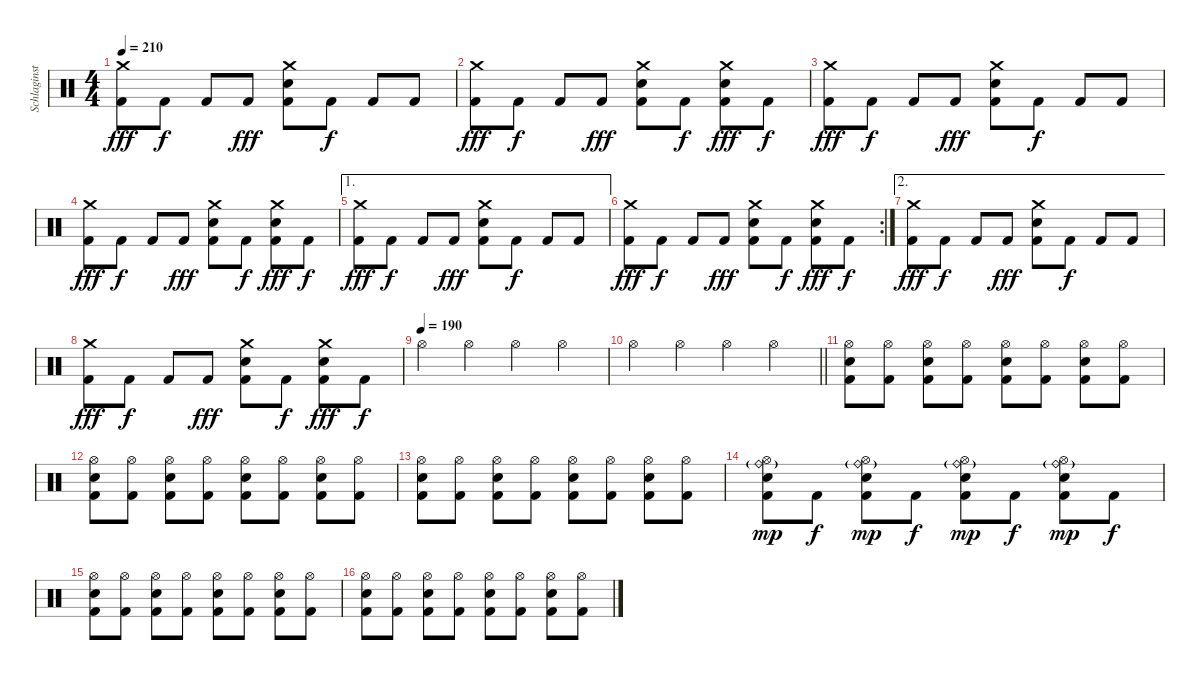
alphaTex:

\track ("Schlaginstrumente - Auswahl" "Schlaginst") {instrument percussion}
\staff {score}
\articulation defaults
\ts (4 4)
\tempo 210
\clef neutral
\ks c
("Crash medium (hit)" "Kick (hit) 2").8{dy fff} "Kick (hit) 2".8{dy f} "Kick (hit) 2".8 "Kick (hit) 2".8{dy fff} ("Crash medium (hit)" "Snare (hit) 2" "Kick (hit) 2").8 "Kick (hit) 2".8{dy f} "Kick (hit) 2".8 "Kick (hit) 2".8 |
("Crash medium (hit)" "Kick (hit) 2").8{dy fff} "Kick (hit) 2".8{dy f} "Kick (hit) 2".8 "Kick (hit) 2".8{dy fff} ("Crash medium (hit)" "Snare (hit) 2" "Kick (hit) 2").8 "Kick (hit) 2".8{dy f} ("Crash medium (hit)" "Snare (hit) 2" "Kick (hit) 2").8{dy fff} "Kick (hit) 2".8{dy f} |
("Crash medium (hit)" "Kick (hit) 2").8{dy fff} "Kick (hit) 2".8{dy f} "Kick (hit) 2".8 "Kick (hit) 2".8{dy fff} ("Crash medium (hit)" "Snare (hit) 2" "Kick (hit) 2").8 "Kick (hit) 2".8{dy f} "Kick (hit) 2".8 "Kick (hit) 2".8 |
("Crash medium (hit)" "Kick (hit) 2").8{dy fff} "Kick (hit) 2".8{dy f} "Kick (hit) 2".8 "Kick (hit) 2".8{dy fff} ("Crash medium (hit)" "Snare (hit) 2" "Kick (hit) 2").8 "Kick (hit) 2".8{dy f} ("Crash medium (hit)" "Snare (hit) 2" "Kick (hit) 2").8{dy fff} "Kick (hit) 2".8{dy f} |
\ae 1
("Crash medium (hit)" "Kick (hit) 2").8{dy fff} "Kick (hit) 2".8{dy f} "Kick (hit) 2".8 "Kick (hit) 2".8{dy fff} ("Crash medium (hit)" "Snare (hit) 2" "Kick (hit) 2").8 "Kick (hit) 2".8{dy f} "Kick (hit) 2".8 "Kick (hit) 2".8 |
\rc 2
("Crash medium (hit)" "Kick (hit) 2").8{dy fff} "Kick (hit) 2".8{dy f} "Kick (hit) 2".8 "Kick (hit) 2".8{dy fff} ("Crash medium (hit)" "Snare (hit) 2" "Kick (hit) 2").8 "Kick (hit) 2".8{dy f} ("Crash medium (hit)" "Snare (hit) 2" "Kick (hit) 2").8{dy fff} "Kick (hit) 2".8{dy f} |
\ae 2
("Crash medium (hit)" "Kick (hit) 2").8{dy fff} "Kick (hit) 2".8{dy f} "Kick (hit) 2".8 "Kick (hit) 2".8{dy fff} ("Crash medium (hit)" "Snare (hit) 2" "Kick (hit) 2").8 "Kick (hit) 2".8{dy f} "Kick (hit) 2".8 "Kick (hit) 2".8 |
("Crash medium (hit)" "Kick (hit) 2").8{dy fff} "Kick (hit) 2".8{dy f} "Kick (hit) 2".8 "Kick (hit) 2".8{dy fff} ("Crash medium (hit)" "Snare (hit) 2" "Kick (hit) 2").8 "Kick (hit) 2".8{dy f} ("Crash medium (hit)" "Snare (hit) 2" "Kick (hit) 2").8{dy fff} "Kick (hit) 2".8{dy f} |
\tempo (190)
"Hi-Hat (open)".4 "Hi-Hat (open)".4 "Hi-Hat (open)".4 "Hi-Hat (open)".4 |
\barLineRight lightlight "Hi-Hat (open)".4 "Hi-Hat (open)".4 "Hi-Hat (open)".4 "Hi-Hat (open)".4
|
("Hi-Hat (open)" "Snare (hit) 2" "Kick (hit) 2").8 ("Hi-Hat (open)" "Kick (hit) 2").8 ("Hi-Hat (open)" "Snare (hit) 2" "Kick (hit) 2").8 ("Hi-Hat (open)" "Kick (hit) 2").8 ("Hi-Hat (open)" "Snare (hit) 2" "Kick (hit) 2").8 ("Hi-Hat (open)" "Kick (hit) 2").8 ("Hi-Hat (open)" "Snare (hit) 2" "Kick (hit) 2").8 ("Hi-Hat (open)" "Kick (hit) 2").8 |
("Hi-Hat (open)" "Snare (hit) 2" "Kick (hit) 2").8 ("Hi-Hat (open)" "Kick (hit) 2").8 ("Hi-Hat (open)" "Snare (hit) 2" "Kick (hit) 2").8 ("Hi-Hat (open)" "Kick (hit) 2").8 ("Hi-Hat (open)" "Snare (hit) 2" "Kick (hit) 2").8 ("Hi-Hat (open)" "Kick (hit) 2").8 ("Hi-Hat (open)" "Snare (hit) 2" "Kick (hit) 2").8 ("Hi-Hat (open)" "Kick (hit) 2").8 |
("Hi-Hat (open)" "Snare (hit) 2" "Kick (hit) 2").8 ("Hi-Hat (open)" "Kick (hit) 2").8 ("Hi-Hat (open)" "Snare (hit) 2" "Kick (hit) 2").8 ("Hi-Hat (open)" "Kick (hit) 2").8 ("Hi-Hat (open)" "Snare (hit) 2" "Kick (hit) 2").8 ("Hi-Hat (open)" "Kick (hit) 2").8 ("Hi-Hat (open)" "Snare (hit) 2" "Kick (hit) 2").8 ("Hi-Hat (open)" "Kick (hit) 2").8 |
("Ride (bell)"{g} "Hi-Hat (open)" "Snare (hit) 2" "Kick (hit) 2").8{dy mp} "Kick (hit) 2".8{dy f} ("Ride (bell)"{g} "Hi-Hat (open)" "Snare (hit) 2" "Kick (hit) 2").8{dy mp} "Kick (hit) 2".8{dy f} ("Ride (bell)"{g} "Hi-Hat (open)" "Snare (hit) 2" "Kick (hit) 2").8{dy mp} "Kick (hit) 2".8{dy f} ("Ride (bell)"{g} "Hi-Hat (open)" "Snare (hit) 2" "Kick (hit) 2").8{dy mp} "Kick (hit) 2".8{dy f} |
("Hi-Hat (open)" "Snare (hit) 2" "Kick (hit) 2").8 ("Hi-Hat (open)" "Kick (hit) 2").8 ("Hi-Hat (open)" "Snare (hit) 2" "Kick (hit) 2").8 ("Hi-Hat (open)" "Kick (hit) 2").8 ("Hi-Hat (open)" "Snare (hit) 2" "Kick (hit) 2").8 ("Hi-Hat (open)" "Kick (hit) 2").8 ("Hi-Hat (open)" "Snare (hit) 2" "Kick (hit) 2").8 ("Hi-Hat (open)" "Kick (hit) 2").8 |
("Hi-Hat (open)" "Snare (hit) 2" "Kick (hit) 2").8 ("Hi-Hat (open)" "Kick (hit) 2").8 ("Hi-Hat (open)" "Snare (hit) 2" "Kick (hit) 2").8 ("Hi-Hat (open)" "Kick (hit) 2").8 ("Hi-Hat (open)" "Snare (hit) 2" "Kick (hit) 2").8 ("Hi-Hat (open)" "Kick (hit) 2").8 ("Hi-Hat (open)" "Snare (hit) 2" "Kick (hit) 2").8 ("Hi-Hat (open)" "Kick (hit) 2").8
